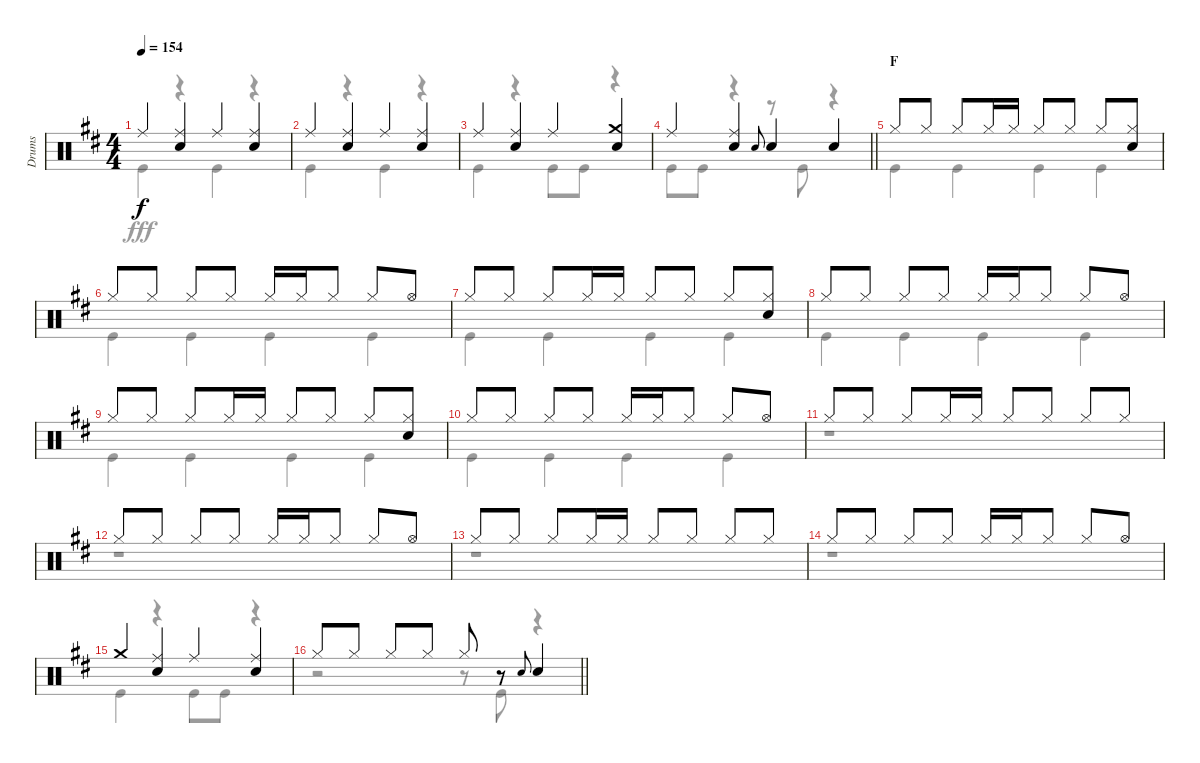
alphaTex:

\track ("Drums" "Drums") {instrument percussion}
\staff {score}
\articulation defaults
\voice
\ts (4 4)
\tempo 154
\clef neutral
\ks d "Ride (middle)".4{dy f}
("Ride (middle)" "Snare (hit) 2").4 "Ride (middle)".4 ("Ride (middle)" "Snare (hit) 2").4 |
"Ride (middle)".4 ("Ride (middle)" "Snare (hit) 2").4 "Ride (middle)".4 ("Ride (middle)" "Snare (hit) 2").4 |
"Ride (middle)".4 ("Ride (middle)" "Snare (hit) 2").4 "Ride (middle)".4 ("Crash medium (hit)" "Snare (hit) 2").4 |
\barLineRight lightlight "Ride (middle)".4
("Ride (middle)" "Snare (hit) 2").4 "Snare (hit) 2".8{gr onbeat} "Snare (hit) 2".4 "Snare (hit) 2".4 |
\section ("" "F")
"Hi-Hat (closed)".8 "Hi-Hat (closed)".8 "Hi-Hat (closed)".8 "Hi-Hat (closed)".16 "Hi-Hat (closed)".16 "Hi-Hat (closed)".8 "Hi-Hat (closed)".8 "Hi-Hat (closed)".8 ("Hi-Hat (closed)" "Snare (hit) 2").8 |
"Hi-Hat (closed)".8 "Hi-Hat (closed)".8 "Hi-Hat (closed)".8 "Hi-Hat (closed)".8 "Hi-Hat (closed)".16 "Hi-Hat (closed)".16 "Hi-Hat (closed)".8 "Hi-Hat (closed)".8 "Hi-Hat (open)".8 |
"Hi-Hat (closed)".8 "Hi-Hat (closed)".8 "Hi-Hat (closed)".8 "Hi-Hat (closed)".16 "Hi-Hat (closed)".16 "Hi-Hat (closed)".8 "Hi-Hat (closed)".8 "Hi-Hat (closed)".8 ("Hi-Hat (closed)" "Snare (hit) 2").8 |
"Hi-Hat (closed)".8 "Hi-Hat (closed)".8 "Hi-Hat (closed)".8 "Hi-Hat (closed)".8 "Hi-Hat (closed)".16 "Hi-Hat (closed)".16 "Hi-Hat (closed)".8 "Hi-Hat (closed)".8 "Hi-Hat (open)".8 |
"Hi-Hat (closed)".8 "Hi-Hat (closed)".8 "Hi-Hat (closed)".8 "Hi-Hat (closed)".16 "Hi-Hat (closed)".16 "Hi-Hat (closed)".8 "Hi-Hat (closed)".8 "Hi-Hat (closed)".8 ("Hi-Hat (closed)" "Snare (hit) 2").8 |
"Hi-Hat (closed)".8 "Hi-Hat (closed)".8 "Hi-Hat (closed)".8 "Hi-Hat (closed)".8 "Hi-Hat (closed)".16 "Hi-Hat (closed)".16 "Hi-Hat (closed)".8 "Hi-Hat (closed)".8 "Hi-Hat (open)".8 |
"Hi-Hat (closed)".8 "Hi-Hat (closed)".8 "Hi-Hat (closed)".8 "Hi-Hat (closed)".16 "Hi-Hat (closed)".16 "Hi-Hat (closed)".8 "Hi-Hat (closed)".8 "Hi-Hat (closed)".8 "Hi-Hat (closed)".8 |
"Hi-Hat (closed)".8 "Hi-Hat (closed)".8 "Hi-Hat (closed)".8 "Hi-Hat (closed)".8 "Hi-Hat (closed)".16 "Hi-Hat (closed)".16 "Hi-Hat (closed)".8 "Hi-Hat (closed)".8 "Hi-Hat (open)".8 |
"Hi-Hat (closed)".8 "Hi-Hat (closed)".8 "Hi-Hat (closed)".8 "Hi-Hat (closed)".16 "Hi-Hat (closed)".16 "Hi-Hat (closed)".8 "Hi-Hat (closed)".8 "Hi-Hat (closed)".8 "Hi-Hat (closed)".8 |
"Hi-Hat (closed)".8 "Hi-Hat (closed)".8 "Hi-Hat (closed)".8 "Hi-Hat (closed)".8 "Hi-Hat (closed)".16 "Hi-Hat (closed)".16 "Hi-Hat (closed)".8 "Hi-Hat (closed)".8 "Hi-Hat (open)".8 |
"Crash medium (hit)".4 ("Ride (middle)" "Snare (hit) 2").4 "Ride (middle)".4 ("Ride (middle)" "Snare (hit) 2").4 |
\barLineRight lightlight "Hi-Hat (closed)".8 "Hi-Hat (closed)".8 "Hi-Hat (closed)".8 "Hi-Hat (closed)".8 "Hi-Hat (closed)".8
r.8 "Snare (hit) 2".8{gr onbeat} "Snare (hit) 2".4
\voice
\clef neutral
\ottava regular
\simile none
\ks d "Kick (hit)".4{dy fff}
r.4 "Kick (hit)".4 r.4 |
"Kick (hit)".4 r.4 "Kick (hit)".4 r.4 |
"Kick (hit)".4 r.4 "Kick (hit)".8 "Kick (hit)".8 r.4 |
\barLineRight lightlight "Kick (hit)".8 "Kick (hit)".8
r.4 r.8 "Kick (hit)".8 r.4 |
"Kick (hit)".4 "Kick (hit)".4 "Kick (hit)".4 "Kick (hit)".4 |
"Kick (hit)".4 "Kick (hit)".4 "Kick (hit)".4 "Kick (hit)".4 |
"Kick (hit)".4 "Kick (hit)".4 "Kick (hit)".4 "Kick (hit)".4 |
"Kick (hit)".4 "Kick (hit)".4 "Kick (hit)".4 "Kick (hit)".4 |
"Kick (hit)".4 "Kick (hit)".4 "Kick (hit)".4 "Kick (hit)".4 |
"Kick (hit)".4 "Kick (hit)".4 "Kick (hit)".4 "Kick (hit)".4 |
r.1 |
r.1 |
r.1 |
r.1 |
"Kick (hit)".4 r.4 "Kick (hit)".8 "Kick (hit)".8 r.4 |
\barLineRight lightlight
r.2 r.8 "Kick (hit)".8 r.4
